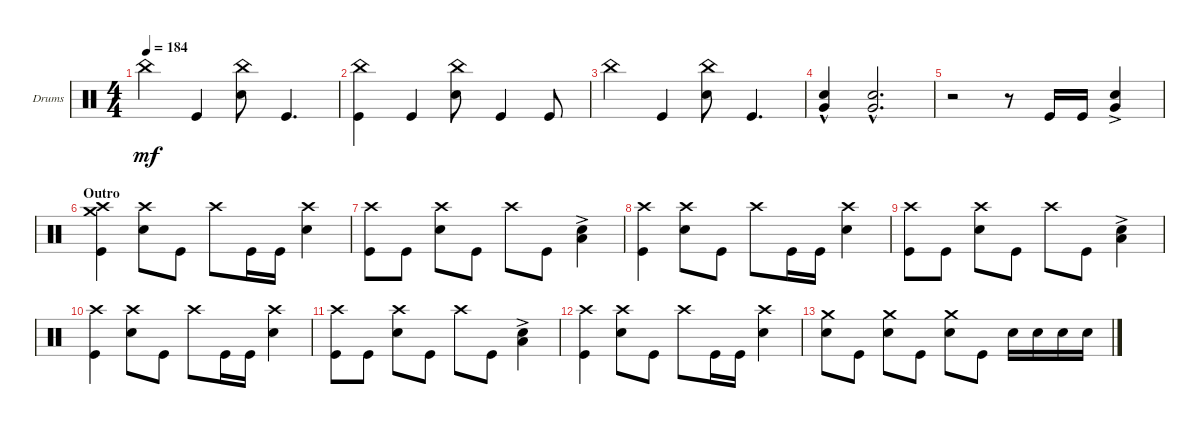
\defaultSystemsLayout 4
\bracketExtendMode groupsimilarinstruments
\firstSystemTrackNameOrientation horizontal
\otherSystemsTrackNameOrientation horizontal
\track ("Drums (Phoenix)" "Drums") {instrument percussion}
\staff {score}
\articulation defaults
\ts (4 4)
\tempo 184
\clef neutral
\ks c "China (hit)".4{dy mf} "Kick (hit)".4
("Snare (hit) 2" "China (hit)").8 "Kick (hit)".4{d} |
("Kick (hit)" "China (hit)").4 "Kick (hit)".4 ("Snare (hit) 2" "China (hit)").8 "Kick (hit)".4 "Kick (hit)".8 |
"China (hit)".4 "Kick (hit)".4 ("Snare (hit) 2" "China (hit)").8 "Kick (hit)".4{d} |
("Snare (hit) 2"{hac} "Very Low Tom (hit)").4 ("Snare (hit) 2"{hac} "Very Low Tom (hit)").2{d} |
r.2 r.8 "Kick (hit)".16 "Kick (hit)".16 ("Snare (hit) 2"{ac} "Very Low Tom (hit)").4 |
\section ("" "Outro")
("Kick (hit)" "Crash high (hit)" "Crash medium (hit)").4 ("Snare (hit) 2" "Crash high (hit)").8 "Kick (hit)".8 "Crash high (hit)".8 "Kick (hit)".16 "Kick (hit)".16 ("Snare (hit) 2" "Crash high (hit)").4 |
("Kick (hit)" "Crash high (hit)").8 "Kick (hit)".8 ("Snare (hit) 2" "Crash high (hit)").8 "Kick (hit)".8 "Crash high (hit)".8 "Kick (hit)".8 ("Snare (hit) 2" "Low Tom (hit)"{ac}).4 |
("Kick (hit)" "Crash high (hit)").4 ("Snare (hit) 2" "Crash high (hit)").8 "Kick (hit)".8 "Crash high (hit)".8 "Kick (hit)".16 "Kick (hit)".16 ("Snare (hit) 2" "Crash high (hit)").4 |
("Kick (hit)" "Crash high (hit)").8 "Kick (hit)".8 ("Snare (hit) 2" "Crash high (hit)").8 "Kick (hit)".8 "Crash high (hit)".8 "Kick (hit)".8 ("Snare (hit) 2" "Low Tom (hit)"{ac}).4 |
("Kick (hit)" "Crash high (hit)").4 ("Snare (hit) 2" "Crash high (hit)").8 "Kick (hit)".8 "Crash high (hit)".8 "Kick (hit)".16 "Kick (hit)".16 ("Snare (hit) 2" "Crash high (hit)").4 |
("Kick (hit)" "Crash high (hit)").8 "Kick (hit)".8 ("Snare (hit) 2" "Crash high (hit)").8 "Kick (hit)".8 "Crash high (hit)".8 "Kick (hit)".8 ("Snare (hit) 2" "Low Tom (hit)"{ac}).4 |
("Kick (hit)" "Crash high (hit)").4 ("Snare (hit) 2" "Crash high (hit)").8 "Kick (hit)".8 "Crash high (hit)".8 "Kick (hit)".16 "Kick (hit)".16 ("Snare (hit) 2" "Crash high (hit)").4 |
("Snare (hit) 2" "Crash medium (hit)").8 "Kick (hit)".8 ("Snare (hit) 2" "Crash medium (hit)").8 "Kick (hit)".8 ("Snare (hit) 2" "Crash medium (hit)").8 "Kick (hit)".8 "Snare (hit) 2".16 "Snare (hit) 2".16 "Snare (hit) 2".16 "Snare (hit) 2".16
